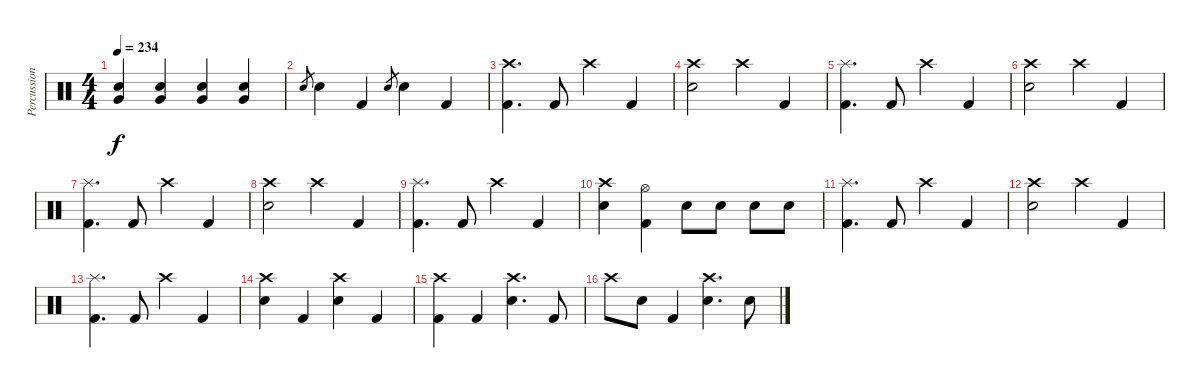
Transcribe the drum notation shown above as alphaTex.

\track ("Percussions" "Percussion") {instrument percussion}
\staff {score}
\articulation defaults
\ts (4 4)
\tempo 234
\clef neutral
\ks c
("Snare (hit) 2" "Very Low Tom (hit)").4{dy f volume 2} ("Snare (hit) 2" "Very Low Tom (hit)").4{volume 13} ("Snare (hit) 2" "Very Low Tom (hit)").4 ("Snare (hit) 2" "Very Low Tom (hit)").4 |
"Snare (hit) 2".8{gr} "Snare (hit) 2".4 "Kick (hit) 2".4 "Snare (hit) 2".8{gr} "Snare (hit) 2".4 "Kick (hit) 2".4 |
("Crash high (hit)" "Kick (hit) 2").4{d} "Kick (hit) 2".8 "Crash high (hit)".4 "Kick (hit) 2".4 |
("Crash high (hit)" "Snare (hit) 2").2 "Crash high (hit)".4 "Kick (hit) 2".4 |
("Splash (hit)" "Kick (hit) 2").4{d} "Kick (hit) 2".8 "Crash high (hit)".4 "Kick (hit) 2".4 |
("Crash high (hit)" "Snare (hit) 2").2 "Crash high (hit)".4 "Kick (hit) 2".4 |
("Splash (hit)" "Kick (hit) 2").4{d} "Kick (hit) 2".8 "Crash high (hit)".4 "Kick (hit) 2".4 |
("Crash high (hit)" "Snare (hit) 2").2 "Crash high (hit)".4 "Kick (hit) 2".4 |
("Splash (hit)" "Kick (hit) 2").4{d} "Kick (hit) 2".8 "Crash high (hit)".4 "Kick (hit) 2".4 |
("Crash high (hit)" "Snare (hit) 2").4 ("Hi-Hat (open)" "Kick (hit) 2").4 "Snare (hit) 2".8 "Snare (hit) 2".8 "Snare (hit) 2".8 "Snare (hit) 2".8 |
("Splash (hit)" "Kick (hit) 2").4{d} "Kick (hit) 2".8 "Crash high (hit)".4 "Kick (hit) 2".4 |
("Crash high (hit)" "Snare (hit) 2").2 "Crash high (hit)".4 "Kick (hit) 2".4 |
("Splash (hit)" "Kick (hit) 2").4{d} "Kick (hit) 2".8 "Crash high (hit)".4 "Kick (hit) 2".4 |
("Crash high (hit)" "Snare (hit) 2").4 "Kick (hit) 2".4 ("Crash high (hit)" "Snare (hit) 2").4 "Kick (hit) 2".4 |
("Crash high (hit)" "Kick (hit) 2").4 "Kick (hit) 2".4 ("Crash high (hit)" "Snare (hit) 2").4{d} "Kick (hit) 2".8 |
"Crash high (hit)".8 "Snare (hit) 2".8 "Kick (hit) 2".4 ("Crash high (hit)" "Snare (hit) 2").4{d} "Snare (hit) 2".8
